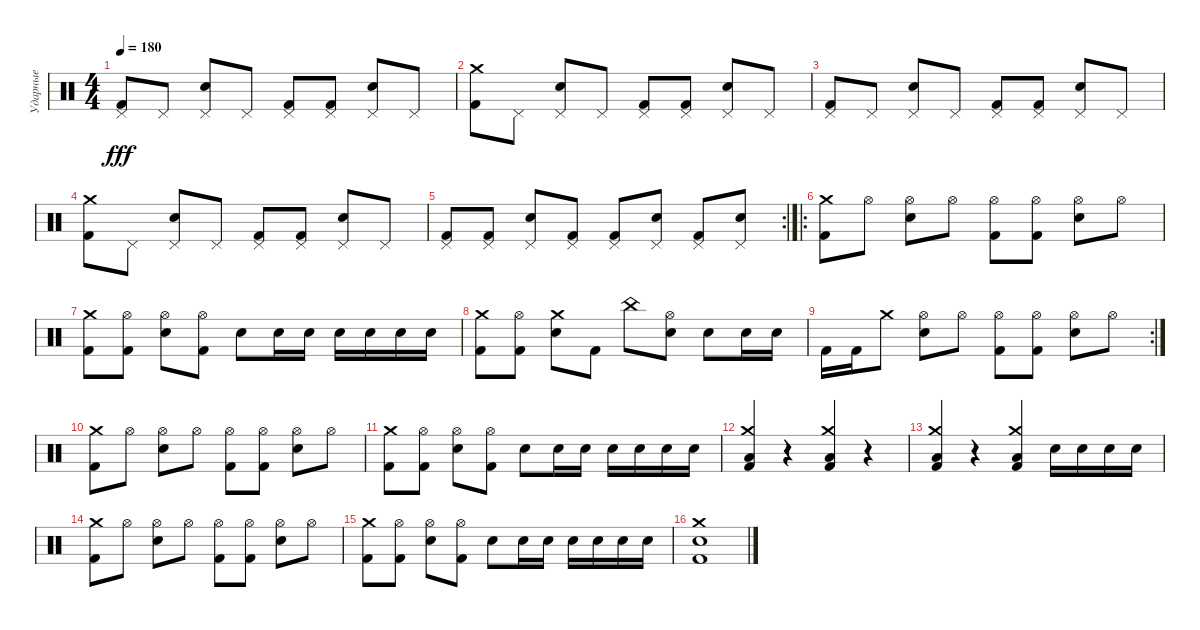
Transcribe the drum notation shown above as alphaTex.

\track ("Ударные" "Ударные") {instrument percussion}
\staff {score}
\articulation defaults
\ts (4 4)
\tempo 180
\clef neutral
\ks c
("Pedal Hi-Hat (hit)" "Kick (hit) 2").8{dy fff} "Pedal Hi-Hat (hit)".8 ("Pedal Hi-Hat (hit)" "Electric Snare (hit)").8 "Pedal Hi-Hat (hit)".8 ("Pedal Hi-Hat (hit)" "Kick (hit) 2").8 ("Pedal Hi-Hat (hit)" "Kick (hit) 2").8 ("Pedal Hi-Hat (hit)" "Electric Snare (hit)").8 "Pedal Hi-Hat (hit)".8 |
("Crash medium (hit)" "Kick (hit) 2").8 "Pedal Hi-Hat (hit)".8 ("Pedal Hi-Hat (hit)" "Electric Snare (hit)").8 "Pedal Hi-Hat (hit)".8 ("Pedal Hi-Hat (hit)" "Kick (hit) 2").8 ("Pedal Hi-Hat (hit)" "Kick (hit) 2").8 ("Pedal Hi-Hat (hit)" "Electric Snare (hit)").8 "Pedal Hi-Hat (hit)".8 |
("Pedal Hi-Hat (hit)" "Kick (hit) 2").8 "Pedal Hi-Hat (hit)".8 ("Pedal Hi-Hat (hit)" "Electric Snare (hit)").8 "Pedal Hi-Hat (hit)".8 ("Pedal Hi-Hat (hit)" "Kick (hit) 2").8 ("Pedal Hi-Hat (hit)" "Kick (hit) 2").8 ("Pedal Hi-Hat (hit)" "Electric Snare (hit)").8 "Pedal Hi-Hat (hit)".8 |
("Crash medium (hit)" "Kick (hit) 2").8 "Pedal Hi-Hat (hit)".8 ("Pedal Hi-Hat (hit)" "Electric Snare (hit)").8 "Pedal Hi-Hat (hit)".8 ("Pedal Hi-Hat (hit)" "Kick (hit) 2").8 ("Pedal Hi-Hat (hit)" "Kick (hit) 2").8 ("Pedal Hi-Hat (hit)" "Electric Snare (hit)").8 "Pedal Hi-Hat (hit)".8 |
\rc 2
("Pedal Hi-Hat (hit)" "Kick (hit) 2").8 ("Pedal Hi-Hat (hit)" "Kick (hit) 2").8 ("Pedal Hi-Hat (hit)" "Electric Snare (hit)").8 ("Pedal Hi-Hat (hit)" "Kick (hit) 2").8 ("Pedal Hi-Hat (hit)" "Kick (hit) 2").8 ("Pedal Hi-Hat (hit)" "Electric Snare (hit)").8 ("Pedal Hi-Hat (hit)" "Kick (hit) 2").8 ("Pedal Hi-Hat (hit)" "Electric Snare (hit)").8 |
\ro
("Crash medium (hit)" "Kick (hit) 2").8 "Hi-Hat (open)".8 ("Hi-Hat (open)" "Electric Snare (hit)").8 "Hi-Hat (open)".8 ("Hi-Hat (open)" "Kick (hit) 2").8 ("Hi-Hat (open)" "Kick (hit) 2").8 ("Hi-Hat (open)" "Electric Snare (hit)").8 "Hi-Hat (open)".8 |
("Crash medium (hit)" "Kick (hit) 2").8 ("Hi-Hat (open)" "Kick (hit) 2").8 ("Hi-Hat (open)" "Electric Snare (hit)").8 ("Hi-Hat (open)" "Kick (hit) 2").8 "Electric Snare (hit)".8 "Electric Snare (hit)".16 "Electric Snare (hit)".16 "Electric Snare (hit)".16 "Electric Snare (hit)".16 "Electric Snare (hit)".16 "Electric Snare (hit)".16 |
("Crash medium (hit)" "Kick (hit) 2").8 ("Hi-Hat (open)" "Kick (hit) 2").8 ("Crash medium (hit)" "Electric Snare (hit)").8 "Kick (hit) 2".8 "China (hit)".8 ("Hi-Hat (open)" "Electric Snare (hit)").8 "Electric Snare (hit)".8 "Electric Snare (hit)".16 "Electric Snare (hit)".16 |
\rc 2 "Kick (hit) 2".16 "Kick (hit) 2".16 "Crash medium (hit)".8
("Hi-Hat (open)" "Electric Snare (hit)").8 "Hi-Hat (open)".8 ("Hi-Hat (open)" "Kick (hit) 2").8 ("Hi-Hat (open)" "Kick (hit) 2").8 ("Hi-Hat (open)" "Electric Snare (hit)").8 "Hi-Hat (open)".8 |
("Crash medium (hit)" "Kick (hit) 2").8 "Hi-Hat (open)".8 ("Hi-Hat (open)" "Electric Snare (hit)").8 "Hi-Hat (open)".8 ("Hi-Hat (open)" "Kick (hit) 2").8 ("Hi-Hat (open)" "Kick (hit) 2").8 ("Hi-Hat (open)" "Electric Snare (hit)").8 "Hi-Hat (open)".8 |
("Crash medium (hit)" "Kick (hit) 2").8 ("Hi-Hat (open)" "Kick (hit) 2").8 ("Hi-Hat (open)" "Electric Snare (hit)").8 ("Hi-Hat (open)" "Kick (hit) 2").8 "Electric Snare (hit)".8 "Electric Snare (hit)".16 "Electric Snare (hit)".16 "Electric Snare (hit)".16 "Electric Snare (hit)".16 "Electric Snare (hit)".16 "Electric Snare (hit)".16 |
("Crash medium (hit)" "Low Floor Tom (hit)" "Kick (hit) 2").4 r.4 ("Crash medium (hit)" "Low Floor Tom (hit)" "Kick (hit) 2").4 r.4 |
("Crash medium (hit)" "Low Floor Tom (hit)" "Kick (hit) 2").4 r.4 ("Crash medium (hit)" "Low Floor Tom (hit)" "Kick (hit) 2").4 "Electric Snare (hit)".16 "Electric Snare (hit)".16 "Electric Snare (hit)".16 "Electric Snare (hit)".16 |
("Crash medium (hit)" "Kick (hit) 2").8 "Hi-Hat (open)".8 ("Hi-Hat (open)" "Electric Snare (hit)").8 "Hi-Hat (open)".8 ("Hi-Hat (open)" "Kick (hit) 2").8 ("Hi-Hat (open)" "Kick (hit) 2").8 ("Hi-Hat (open)" "Electric Snare (hit)").8 "Hi-Hat (open)".8 |
("Crash medium (hit)" "Kick (hit) 2").8 ("Hi-Hat (open)" "Kick (hit) 2").8 ("Hi-Hat (open)" "Electric Snare (hit)").8 ("Hi-Hat (open)" "Kick (hit) 2").8 "Electric Snare (hit)".8 "Electric Snare (hit)".16 "Electric Snare (hit)".16 "Electric Snare (hit)".16 "Electric Snare (hit)".16 "Electric Snare (hit)".16 "Electric Snare (hit)".16 |
("Crash medium (hit)" "Electric Snare (hit)" "Kick (hit) 2").1
